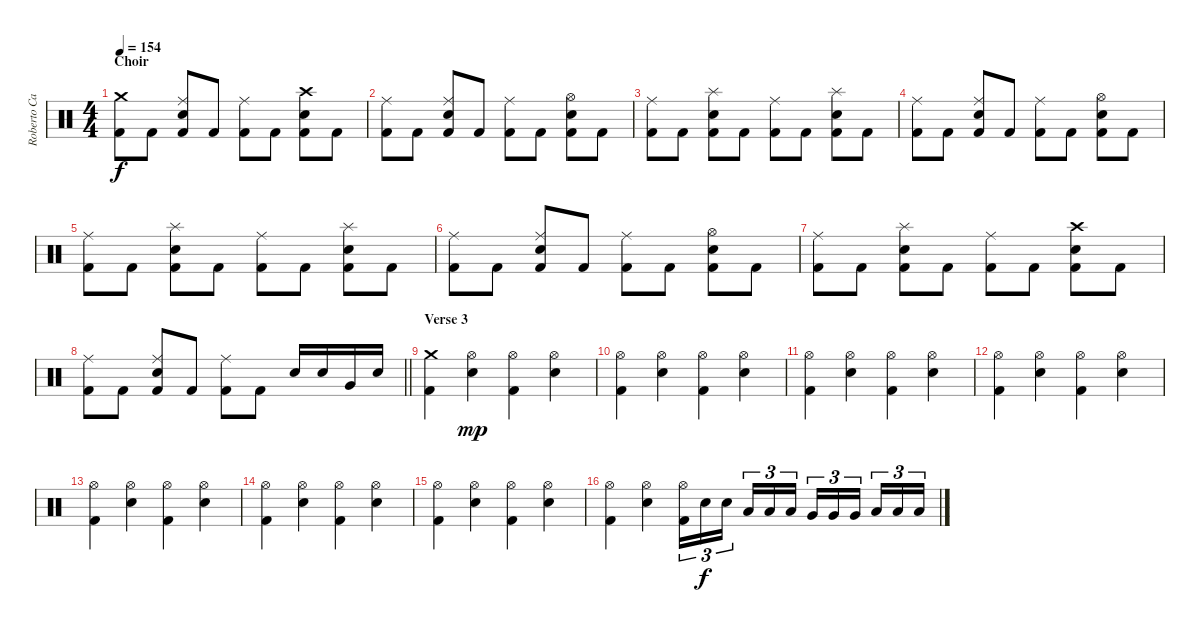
\track ("Roberto Cappa - Drums" "Roberto Ca") {instrument percussion}
\staff
\articulation defaults
\ts (4 4)
\section ("" "Choir")
\tempo 154
\clef neutral
\ks c
("Crash medium (hit)" "Kick (hit) 2").8{dy f} "Kick (hit) 2".8 ("Ride (middle)" "Kick (hit) 2" "Electric Snare (hit)").8 "Kick (hit) 2".8 ("Ride (middle)" "Kick (hit) 2").8 "Kick (hit) 2".8 ("Crash high (hit)" "Kick (hit) 2" "Electric Snare (hit)").8 "Kick (hit) 2".8 |
("Ride (middle)" "Kick (hit) 2").8 "Kick (hit) 2".8 ("Ride (middle)" "Kick (hit) 2" "Electric Snare (hit)").8 "Kick (hit) 2".8 ("Ride (middle)" "Kick (hit) 2").8 "Kick (hit) 2".8 ("Hi-Hat (open)" "Kick (hit) 2" "Electric Snare (hit)").8 "Kick (hit) 2".8 |
("Ride (middle)" "Kick (hit) 2").8 "Kick (hit) 2".8 ("Splash (hit)" "Kick (hit) 2" "Electric Snare (hit)").8 "Kick (hit) 2".8 ("Ride (middle)" "Kick (hit) 2").8 "Kick (hit) 2".8 ("Splash (hit)" "Kick (hit) 2" "Electric Snare (hit)").8 "Kick (hit) 2".8 |
("Ride (middle)" "Kick (hit) 2").8 "Kick (hit) 2".8 ("Ride (middle)" "Kick (hit) 2" "Electric Snare (hit)").8 "Kick (hit) 2".8 ("Ride (middle)" "Kick (hit) 2").8 "Kick (hit) 2".8 ("Hi-Hat (open)" "Kick (hit) 2" "Electric Snare (hit)").8 "Kick (hit) 2".8 |
("Ride (middle)" "Kick (hit) 2").8 "Kick (hit) 2".8 ("Splash (hit)" "Kick (hit) 2" "Electric Snare (hit)").8 "Kick (hit) 2".8 ("Ride (middle)" "Kick (hit) 2").8 "Kick (hit) 2".8 ("Splash (hit)" "Kick (hit) 2" "Electric Snare (hit)").8 "Kick (hit) 2".8 |
("Ride (middle)" "Kick (hit) 2").8 "Kick (hit) 2".8 ("Ride (middle)" "Kick (hit) 2" "Electric Snare (hit)").8 "Kick (hit) 2".8 ("Ride (middle)" "Kick (hit) 2").8 "Kick (hit) 2".8 ("Hi-Hat (open)" "Kick (hit) 2" "Electric Snare (hit)").8 "Kick (hit) 2".8 |
("Ride (middle)" "Kick (hit) 2").8 "Kick (hit) 2".8 ("Splash (hit)" "Kick (hit) 2" "Electric Snare (hit)").8 "Kick (hit) 2".8 ("Ride (middle)" "Kick (hit) 2").8 "Kick (hit) 2".8 ("Crash high (hit)" "Kick (hit) 2" "Electric Snare (hit)").8 "Kick (hit) 2".8 |
\barLineRight lightlight
("Ride (middle)" "Kick (hit) 2").8 "Kick (hit) 2".8 ("Ride (middle)" "Kick (hit) 2" "Electric Snare (hit)").8 "Kick (hit) 2".8 ("Ride (middle)" "Kick (hit) 2").8 "Kick (hit) 2".8 "Electric Snare (hit)".16 "Electric Snare (hit)".16 "Very Low Tom (hit)".16 "Electric Snare (hit)".16 |
\section ("" "Verse 3")
("Crash medium (hit)" "Kick (hit) 2").4 ("Hi-Hat (open)" "Electric Snare (hit)").4{dy mp} ("Hi-Hat (open)" "Kick (hit) 2").4 ("Hi-Hat (open)" "Electric Snare (hit)").4 |
("Hi-Hat (open)" "Kick (hit) 2").4 ("Hi-Hat (open)" "Electric Snare (hit)").4 ("Hi-Hat (open)" "Kick (hit) 2").4 ("Hi-Hat (open)" "Electric Snare (hit)").4 |
("Hi-Hat (open)" "Kick (hit) 2").4 ("Hi-Hat (open)" "Electric Snare (hit)").4 ("Hi-Hat (open)" "Kick (hit) 2").4 ("Hi-Hat (open)" "Electric Snare (hit)").4 |
("Hi-Hat (open)" "Kick (hit) 2").4 ("Hi-Hat (open)" "Electric Snare (hit)").4 ("Hi-Hat (open)" "Kick (hit) 2").4 ("Hi-Hat (open)" "Electric Snare (hit)").4 |
("Hi-Hat (open)" "Kick (hit) 2").4 ("Hi-Hat (open)" "Electric Snare (hit)").4 ("Hi-Hat (open)" "Kick (hit) 2").4 ("Hi-Hat (open)" "Electric Snare (hit)").4 |
("Hi-Hat (open)" "Kick (hit) 2").4 ("Hi-Hat (open)" "Electric Snare (hit)").4 ("Hi-Hat (open)" "Kick (hit) 2").4 ("Hi-Hat (open)" "Electric Snare (hit)").4 |
("Hi-Hat (open)" "Kick (hit) 2").4 ("Hi-Hat (open)" "Electric Snare (hit)").4 ("Hi-Hat (open)" "Kick (hit) 2").4 ("Hi-Hat (open)" "Electric Snare (hit)").4 |
("Hi-Hat (open)" "Kick (hit) 2").4 ("Hi-Hat (open)" "Electric Snare (hit)").4 ("Hi-Hat (open)" "Kick (hit) 2").16{tu (3 2)} "Electric Snare (hit)".16{tu (3 2) dy f} "Electric Snare (hit)".16{tu (3 2) beam splitsecondary} "Low Tom (hit)".16{tu (3 2)} "Low Tom (hit)".16{tu (3 2)} "Low Tom (hit)".16{tu (3 2)} "Very Low Tom (hit)".16{tu (3 2)} "Very Low Tom (hit)".16{tu (3 2)} "Very Low Tom (hit)".16{tu (3 2) beam splitsecondary} "Low Floor Tom (hit)".16{tu (3 2)} "Low Floor Tom (hit)".16{tu (3 2)} "Low Floor Tom (hit)".16{tu (3 2)}
